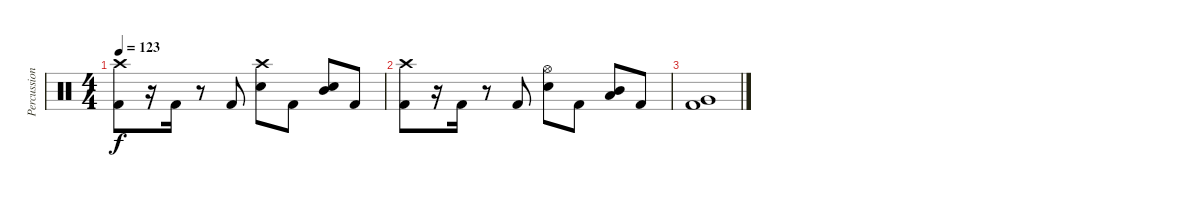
\track ("Percussion" "Percussion") {instrument percussion}
\staff {score}
\articulation defaults
\ts (4 4)
\tempo 123
\clef neutral
\ks c
("Crash high (hit)" "Kick (hit) 2").8{dy f} r.16 "Kick (hit) 2".16 r.8 "Kick (hit) 2".8 ("Crash high (hit)" "Electric Snare (hit)").8 "Kick (hit) 2".8 ("Mid Tom (hit)" "Electric Snare (hit)").8 "Kick (hit) 2".8 |
("Crash high (hit)" "Kick (hit) 2").8 r.16 "Kick (hit) 2".16 r.8 "Kick (hit) 2".8 ("Hi-Hat (open)" "Electric Snare (hit)").8 "Kick (hit) 2".8 ("Mid Tom (hit)" "Low Tom (hit)").8 "Kick (hit) 2".8 |
("Very Low Tom (hit)" "Kick (hit) 2").1
